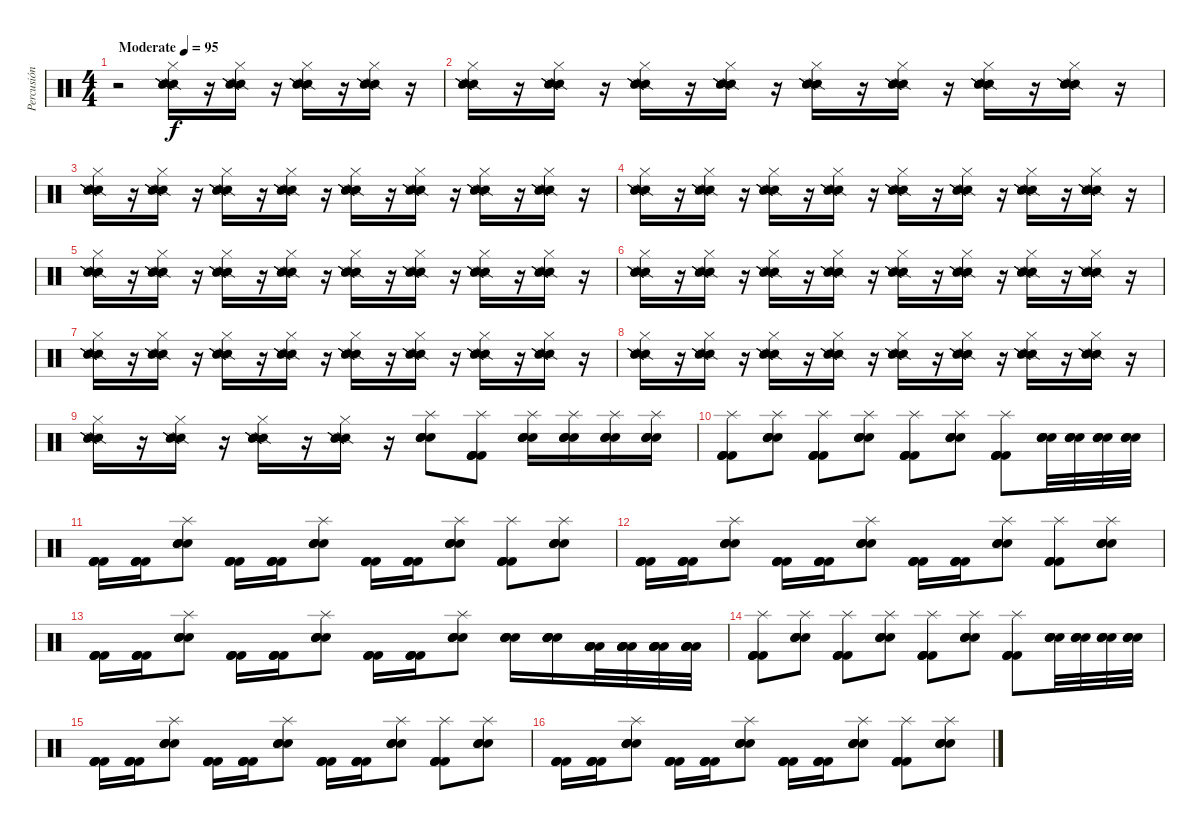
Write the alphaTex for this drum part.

\track ("Percusión" "Percusión") {instrument percussion}
\staff {score}
\articulation defaults
\ts (4 4)
\tempo (95 "Moderate")
\clef neutral
\ks c
r.2{dy f} ("Snare (side stick) 2" "Snare (side stick) 2" "Hi-Hat (closed)" "Snare (side stick) 2" "Snare (side stick) 2").16 r.16 ("Snare (side stick) 2" "Snare (side stick) 2" "Hi-Hat (closed)" "Snare (side stick) 2" "Snare (side stick) 2").16 r.16 ("Snare (side stick) 2" "Snare (side stick) 2" "Hi-Hat (closed)" "Snare (side stick) 2" "Snare (side stick) 2").16 r.16 ("Snare (side stick) 2" "Snare (side stick) 2" "Hi-Hat (closed)" "Snare (side stick) 2" "Snare (side stick) 2").16 r.16 |
("Snare (side stick) 2" "Snare (side stick) 2" "Hi-Hat (closed)" "Snare (side stick) 2" "Snare (side stick) 2").16 r.16 ("Snare (side stick) 2" "Snare (side stick) 2" "Hi-Hat (closed)" "Snare (side stick) 2" "Snare (side stick) 2").16 r.16 ("Snare (side stick) 2" "Snare (side stick) 2" "Hi-Hat (closed)" "Snare (side stick) 2" "Snare (side stick) 2").16 r.16 ("Snare (side stick) 2" "Snare (side stick) 2" "Hi-Hat (closed)" "Snare (side stick) 2" "Snare (side stick) 2").16 r.16 ("Snare (side stick) 2" "Snare (side stick) 2" "Hi-Hat (closed)" "Snare (side stick) 2" "Snare (side stick) 2").16 r.16 ("Snare (side stick) 2" "Snare (side stick) 2" "Hi-Hat (closed)" "Snare (side stick) 2" "Snare (side stick) 2").16 r.16 ("Snare (side stick) 2" "Snare (side stick) 2" "Hi-Hat (closed)" "Snare (side stick) 2" "Snare (side stick) 2").16 r.16 ("Snare (side stick) 2" "Snare (side stick) 2" "Hi-Hat (closed)" "Snare (side stick) 2" "Snare (side stick) 2").16 r.16 |
("Snare (side stick) 2" "Snare (side stick) 2" "Hi-Hat (closed)" "Snare (side stick) 2" "Snare (side stick) 2").16 r.16 ("Snare (side stick) 2" "Snare (side stick) 2" "Hi-Hat (closed)" "Snare (side stick) 2" "Snare (side stick) 2").16 r.16 ("Snare (side stick) 2" "Snare (side stick) 2" "Hi-Hat (closed)" "Snare (side stick) 2" "Snare (side stick) 2").16 r.16 ("Snare (side stick) 2" "Snare (side stick) 2" "Hi-Hat (closed)" "Snare (side stick) 2" "Snare (side stick) 2").16 r.16 ("Snare (side stick) 2" "Snare (side stick) 2" "Hi-Hat (closed)" "Snare (side stick) 2" "Snare (side stick) 2").16 r.16 ("Snare (side stick) 2" "Snare (side stick) 2" "Hi-Hat (closed)" "Snare (side stick) 2" "Snare (side stick) 2").16 r.16 ("Snare (side stick) 2" "Snare (side stick) 2" "Hi-Hat (closed)" "Snare (side stick) 2" "Snare (side stick) 2").16 r.16 ("Snare (side stick) 2" "Snare (side stick) 2" "Hi-Hat (closed)" "Snare (side stick) 2" "Snare (side stick) 2").16 r.16 |
("Snare (side stick) 2" "Snare (side stick) 2" "Hi-Hat (closed)" "Snare (side stick) 2" "Snare (side stick) 2").16 r.16 ("Snare (side stick) 2" "Snare (side stick) 2" "Hi-Hat (closed)" "Snare (side stick) 2" "Snare (side stick) 2").16 r.16 ("Snare (side stick) 2" "Snare (side stick) 2" "Hi-Hat (closed)" "Snare (side stick) 2" "Snare (side stick) 2").16 r.16 ("Snare (side stick) 2" "Snare (side stick) 2" "Hi-Hat (closed)" "Snare (side stick) 2" "Snare (side stick) 2").16 r.16 ("Snare (side stick) 2" "Snare (side stick) 2" "Hi-Hat (closed)" "Snare (side stick) 2" "Snare (side stick) 2").16 r.16 ("Snare (side stick) 2" "Snare (side stick) 2" "Hi-Hat (closed)" "Snare (side stick) 2" "Snare (side stick) 2").16 r.16 ("Snare (side stick) 2" "Snare (side stick) 2" "Hi-Hat (closed)" "Snare (side stick) 2" "Snare (side stick) 2").16 r.16 ("Snare (side stick) 2" "Snare (side stick) 2" "Hi-Hat (closed)" "Snare (side stick) 2" "Snare (side stick) 2").16 r.16 |
("Snare (side stick) 2" "Snare (side stick) 2" "Hi-Hat (closed)" "Snare (side stick) 2" "Snare (side stick) 2").16 r.16 ("Snare (side stick) 2" "Snare (side stick) 2" "Hi-Hat (closed)" "Snare (side stick) 2" "Snare (side stick) 2").16 r.16 ("Snare (side stick) 2" "Snare (side stick) 2" "Hi-Hat (closed)" "Snare (side stick) 2" "Snare (side stick) 2").16 r.16 ("Snare (side stick) 2" "Snare (side stick) 2" "Hi-Hat (closed)" "Snare (side stick) 2" "Snare (side stick) 2").16 r.16 ("Snare (side stick) 2" "Snare (side stick) 2" "Hi-Hat (closed)" "Snare (side stick) 2" "Snare (side stick) 2").16 r.16 ("Snare (side stick) 2" "Snare (side stick) 2" "Hi-Hat (closed)" "Snare (side stick) 2" "Snare (side stick) 2").16 r.16 ("Snare (side stick) 2" "Snare (side stick) 2" "Hi-Hat (closed)" "Snare (side stick) 2" "Snare (side stick) 2").16 r.16 ("Snare (side stick) 2" "Snare (side stick) 2" "Hi-Hat (closed)" "Snare (side stick) 2" "Snare (side stick) 2").16 r.16 |
("Snare (side stick) 2" "Snare (side stick) 2" "Hi-Hat (closed)" "Snare (side stick) 2" "Snare (side stick) 2").16 r.16 ("Snare (side stick) 2" "Snare (side stick) 2" "Hi-Hat (closed)" "Snare (side stick) 2" "Snare (side stick) 2").16 r.16 ("Snare (side stick) 2" "Snare (side stick) 2" "Hi-Hat (closed)" "Snare (side stick) 2" "Snare (side stick) 2").16 r.16 ("Snare (side stick) 2" "Snare (side stick) 2" "Hi-Hat (closed)" "Snare (side stick) 2" "Snare (side stick) 2").16 r.16 ("Snare (side stick) 2" "Snare (side stick) 2" "Hi-Hat (closed)" "Snare (side stick) 2" "Snare (side stick) 2").16 r.16 ("Snare (side stick) 2" "Snare (side stick) 2" "Hi-Hat (closed)" "Snare (side stick) 2" "Snare (side stick) 2").16 r.16 ("Snare (side stick) 2" "Snare (side stick) 2" "Hi-Hat (closed)" "Snare (side stick) 2" "Snare (side stick) 2").16 r.16 ("Snare (side stick) 2" "Snare (side stick) 2" "Hi-Hat (closed)" "Snare (side stick) 2" "Snare (side stick) 2").16 r.16 |
("Snare (side stick) 2" "Snare (side stick) 2" "Hi-Hat (closed)" "Snare (side stick) 2" "Snare (side stick) 2").16 r.16 ("Snare (side stick) 2" "Snare (side stick) 2" "Hi-Hat (closed)" "Snare (side stick) 2" "Snare (side stick) 2").16 r.16 ("Snare (side stick) 2" "Snare (side stick) 2" "Hi-Hat (closed)" "Snare (side stick) 2" "Snare (side stick) 2").16 r.16 ("Snare (side stick) 2" "Snare (side stick) 2" "Hi-Hat (closed)" "Snare (side stick) 2" "Snare (side stick) 2").16 r.16 ("Snare (side stick) 2" "Snare (side stick) 2" "Hi-Hat (closed)" "Snare (side stick) 2" "Snare (side stick) 2").16 r.16 ("Snare (side stick) 2" "Snare (side stick) 2" "Hi-Hat (closed)" "Snare (side stick) 2" "Snare (side stick) 2").16 r.16 ("Snare (side stick) 2" "Snare (side stick) 2" "Hi-Hat (closed)" "Snare (side stick) 2" "Snare (side stick) 2").16 r.16 ("Snare (side stick) 2" "Snare (side stick) 2" "Hi-Hat (closed)" "Snare (side stick) 2" "Snare (side stick) 2").16 r.16 |
("Snare (side stick) 2" "Snare (side stick) 2" "Hi-Hat (closed)" "Snare (side stick) 2" "Snare (side stick) 2").16 r.16 ("Snare (side stick) 2" "Snare (side stick) 2" "Hi-Hat (closed)" "Snare (side stick) 2" "Snare (side stick) 2").16 r.16 ("Snare (side stick) 2" "Snare (side stick) 2" "Hi-Hat (closed)" "Snare (side stick) 2" "Snare (side stick) 2").16 r.16 ("Snare (side stick) 2" "Snare (side stick) 2" "Hi-Hat (closed)" "Snare (side stick) 2" "Snare (side stick) 2").16 r.16 ("Snare (side stick) 2" "Snare (side stick) 2" "Hi-Hat (closed)" "Snare (side stick) 2" "Snare (side stick) 2").16 r.16 ("Snare (side stick) 2" "Snare (side stick) 2" "Hi-Hat (closed)" "Snare (side stick) 2" "Snare (side stick) 2").16 r.16 ("Snare (side stick) 2" "Snare (side stick) 2" "Hi-Hat (closed)" "Snare (side stick) 2" "Snare (side stick) 2").16 r.16 ("Snare (side stick) 2" "Snare (side stick) 2" "Hi-Hat (closed)" "Snare (side stick) 2" "Snare (side stick) 2").16 r.16 |
("Snare (side stick) 2" "Snare (side stick) 2" "Hi-Hat (closed)" "Snare (side stick) 2" "Snare (side stick) 2").16 r.16 ("Snare (side stick) 2" "Snare (side stick) 2" "Hi-Hat (closed)" "Snare (side stick) 2" "Snare (side stick) 2").16 r.16 ("Snare (side stick) 2" "Snare (side stick) 2" "Hi-Hat (closed)" "Snare (side stick) 2" "Snare (side stick) 2").16 r.16 ("Snare (side stick) 2" "Snare (side stick) 2" "Hi-Hat (closed)" "Snare (side stick) 2" "Snare (side stick) 2").16 r.16 ("Electric Snare (hit)" "Splash (hit)" "Electric Snare (hit)" "Electric Snare (hit)" "Electric Snare (hit)").8 ("Kick (hit) 2" "Splash (hit)" "Kick (hit) 2" "Kick (hit) 2" "Kick (hit) 2").8 ("Electric Snare (hit)" "Splash (hit)" "Electric Snare (hit)" "Electric Snare (hit)" "Electric Snare (hit)").16 ("Electric Snare (hit)" "Splash (hit)" "Electric Snare (hit)" "Electric Snare (hit)" "Electric Snare (hit)").16 ("Electric Snare (hit)" "Splash (hit)" "Electric Snare (hit)" "Electric Snare (hit)" "Electric Snare (hit)").16 ("Electric Snare (hit)" "Splash (hit)" "Electric Snare (hit)" "Electric Snare (hit)" "Electric Snare (hit)").16 |
("Kick (hit) 2" "Kick (hit) 2" "Splash (hit)" "Kick (hit) 2" "Kick (hit) 2").8 ("Electric Snare (hit)" "Electric Snare (hit)" "Splash (hit)" "Electric Snare (hit)" "Electric Snare (hit)").8 ("Kick (hit) 2" "Kick (hit) 2" "Splash (hit)" "Kick (hit) 2" "Kick (hit) 2").8 ("Electric Snare (hit)" "Electric Snare (hit)" "Splash (hit)" "Electric Snare (hit)" "Electric Snare (hit)").8 ("Kick (hit) 2" "Kick (hit) 2" "Splash (hit)" "Kick (hit) 2" "Kick (hit) 2").8 ("Electric Snare (hit)" "Electric Snare (hit)" "Splash (hit)" "Electric Snare (hit)" "Electric Snare (hit)").8 ("Kick (hit) 2" "Kick (hit) 2" "Splash (hit)" "Kick (hit) 2" "Kick (hit) 2").8 ("Electric Snare (hit)" "Electric Snare (hit)" "Electric Snare (hit)" "Electric Snare (hit)").32 ("Electric Snare (hit)" "Electric Snare (hit)" "Electric Snare (hit)" "Electric Snare (hit)").32 ("Electric Snare (hit)" "Electric Snare (hit)" "Electric Snare (hit)" "Electric Snare (hit)").32 ("Electric Snare (hit)" "Electric Snare (hit)" "Electric Snare (hit)" "Electric Snare (hit)").32 |
("Kick (hit) 2" "Kick (hit) 2" "Kick (hit) 2" "Kick (hit) 2").16 ("Kick (hit) 2" "Kick (hit) 2" "Kick (hit) 2" "Kick (hit) 2").16 ("Electric Snare (hit)" "Electric Snare (hit)" "Splash (hit)" "Electric Snare (hit)" "Electric Snare (hit)").8 ("Kick (hit) 2" "Kick (hit) 2" "Kick (hit) 2" "Kick (hit) 2").16 ("Kick (hit) 2" "Kick (hit) 2" "Kick (hit) 2" "Kick (hit) 2").16 ("Electric Snare (hit)" "Electric Snare (hit)" "Splash (hit)" "Electric Snare (hit)" "Electric Snare (hit)").8 ("Kick (hit) 2" "Kick (hit) 2" "Kick (hit) 2" "Kick (hit) 2").16 ("Kick (hit) 2" "Kick (hit) 2" "Kick (hit) 2" "Kick (hit) 2").16 ("Electric Snare (hit)" "Electric Snare (hit)" "Splash (hit)" "Electric Snare (hit)" "Electric Snare (hit)").8 ("Kick (hit) 2" "Kick (hit) 2" "Splash (hit)" "Kick (hit) 2" "Kick (hit) 2").8 ("Electric Snare (hit)" "Electric Snare (hit)" "Splash (hit)" "Electric Snare (hit)" "Electric Snare (hit)").8 |
("Kick (hit) 2" "Kick (hit) 2" "Kick (hit) 2" "Kick (hit) 2").16 ("Kick (hit) 2" "Kick (hit) 2" "Kick (hit) 2" "Kick (hit) 2").16 ("Electric Snare (hit)" "Electric Snare (hit)" "Splash (hit)" "Electric Snare (hit)" "Electric Snare (hit)").8 ("Kick (hit) 2" "Kick (hit) 2" "Kick (hit) 2" "Kick (hit) 2").16 ("Kick (hit) 2" "Kick (hit) 2" "Kick (hit) 2" "Kick (hit) 2").16 ("Electric Snare (hit)" "Electric Snare (hit)" "Splash (hit)" "Electric Snare (hit)" "Electric Snare (hit)").8 ("Kick (hit) 2" "Kick (hit) 2" "Kick (hit) 2" "Kick (hit) 2").16 ("Kick (hit) 2" "Kick (hit) 2" "Kick (hit) 2" "Kick (hit) 2").16 ("Electric Snare (hit)" "Electric Snare (hit)" "Splash (hit)" "Electric Snare (hit)" "Electric Snare (hit)").8 ("Kick (hit) 2" "Kick (hit) 2" "Splash (hit)" "Kick (hit) 2" "Kick (hit) 2").8 ("Electric Snare (hit)" "Electric Snare (hit)" "Splash (hit)" "Electric Snare (hit)" "Electric Snare (hit)").8 |
("Kick (hit) 2" "Kick (hit) 2" "Kick (hit) 2" "Kick (hit) 2").16 ("Kick (hit) 2" "Kick (hit) 2" "Kick (hit) 2" "Kick (hit) 2").16 ("Electric Snare (hit)" "Electric Snare (hit)" "Splash (hit)" "Electric Snare (hit)" "Electric Snare (hit)").8 ("Kick (hit) 2" "Kick (hit) 2" "Kick (hit) 2" "Kick (hit) 2").16 ("Kick (hit) 2" "Kick (hit) 2" "Kick (hit) 2" "Kick (hit) 2").16 ("Electric Snare (hit)" "Electric Snare (hit)" "Splash (hit)" "Electric Snare (hit)" "Electric Snare (hit)").8 ("Kick (hit) 2" "Kick (hit) 2" "Kick (hit) 2" "Kick (hit) 2").16 ("Kick (hit) 2" "Kick (hit) 2" "Kick (hit) 2" "Kick (hit) 2").16 ("Electric Snare (hit)" "Electric Snare (hit)" "Splash (hit)" "Electric Snare (hit)" "Electric Snare (hit)").8 ("Electric Snare (hit)" "Electric Snare (hit)" "Electric Snare (hit)" "Electric Snare (hit)" "Electric Snare (hit)").16 ("Electric Snare (hit)" "Electric Snare (hit)" "Electric Snare (hit)" "Electric Snare (hit)" "Electric Snare (hit)").16 ("Low Tom (hit)" "Low Tom (hit)" "Low Tom (hit)" "Low Tom (hit)" "Low Tom (hit)").32 ("Low Tom (hit)" "Low Tom (hit)" "Low Tom (hit)" "Low Tom (hit)" "Low Tom (hit)").32 ("Low Tom (hit)" "Low Tom (hit)" "Low Tom (hit)" "Low Tom (hit)" "Low Tom (hit)").32 ("Low Tom (hit)" "Low Tom (hit)" "Low Tom (hit)" "Low Tom (hit)" "Low Tom (hit)").32 |
("Kick (hit) 2" "Kick (hit) 2" "Splash (hit)" "Kick (hit) 2" "Kick (hit) 2").8 ("Electric Snare (hit)" "Electric Snare (hit)" "Splash (hit)" "Electric Snare (hit)" "Electric Snare (hit)").8 ("Kick (hit) 2" "Kick (hit) 2" "Splash (hit)" "Kick (hit) 2" "Kick (hit) 2").8 ("Electric Snare (hit)" "Electric Snare (hit)" "Splash (hit)" "Electric Snare (hit)" "Electric Snare (hit)").8 ("Kick (hit) 2" "Kick (hit) 2" "Splash (hit)" "Kick (hit) 2" "Kick (hit) 2").8 ("Electric Snare (hit)" "Electric Snare (hit)" "Splash (hit)" "Electric Snare (hit)" "Electric Snare (hit)").8 ("Kick (hit) 2" "Kick (hit) 2" "Splash (hit)" "Kick (hit) 2" "Kick (hit) 2").8 ("Electric Snare (hit)" "Electric Snare (hit)" "Electric Snare (hit)" "Electric Snare (hit)").32 ("Electric Snare (hit)" "Electric Snare (hit)" "Electric Snare (hit)" "Electric Snare (hit)").32 ("Electric Snare (hit)" "Electric Snare (hit)" "Electric Snare (hit)" "Electric Snare (hit)").32 ("Electric Snare (hit)" "Electric Snare (hit)" "Electric Snare (hit)" "Electric Snare (hit)").32 |
("Kick (hit) 2" "Kick (hit) 2" "Kick (hit) 2" "Kick (hit) 2").16 ("Kick (hit) 2" "Kick (hit) 2" "Kick (hit) 2" "Kick (hit) 2").16 ("Electric Snare (hit)" "Electric Snare (hit)" "Splash (hit)" "Electric Snare (hit)" "Electric Snare (hit)").8 ("Kick (hit) 2" "Kick (hit) 2" "Kick (hit) 2" "Kick (hit) 2").16 ("Kick (hit) 2" "Kick (hit) 2" "Kick (hit) 2" "Kick (hit) 2").16 ("Electric Snare (hit)" "Electric Snare (hit)" "Splash (hit)" "Electric Snare (hit)" "Electric Snare (hit)").8 ("Kick (hit) 2" "Kick (hit) 2" "Kick (hit) 2" "Kick (hit) 2").16 ("Kick (hit) 2" "Kick (hit) 2" "Kick (hit) 2" "Kick (hit) 2").16 ("Electric Snare (hit)" "Electric Snare (hit)" "Splash (hit)" "Electric Snare (hit)" "Electric Snare (hit)").8 ("Kick (hit) 2" "Kick (hit) 2" "Splash (hit)" "Kick (hit) 2" "Kick (hit) 2").8 ("Electric Snare (hit)" "Electric Snare (hit)" "Splash (hit)" "Electric Snare (hit)" "Electric Snare (hit)").8 |
("Kick (hit) 2" "Kick (hit) 2" "Kick (hit) 2" "Kick (hit) 2").16 ("Kick (hit) 2" "Kick (hit) 2" "Kick (hit) 2" "Kick (hit) 2").16 ("Electric Snare (hit)" "Electric Snare (hit)" "Splash (hit)" "Electric Snare (hit)" "Electric Snare (hit)").8 ("Kick (hit) 2" "Kick (hit) 2" "Kick (hit) 2" "Kick (hit) 2").16 ("Kick (hit) 2" "Kick (hit) 2" "Kick (hit) 2" "Kick (hit) 2").16 ("Electric Snare (hit)" "Electric Snare (hit)" "Splash (hit)" "Electric Snare (hit)" "Electric Snare (hit)").8 ("Kick (hit) 2" "Kick (hit) 2" "Kick (hit) 2" "Kick (hit) 2").16 ("Kick (hit) 2" "Kick (hit) 2" "Kick (hit) 2" "Kick (hit) 2").16 ("Electric Snare (hit)" "Electric Snare (hit)" "Splash (hit)" "Electric Snare (hit)" "Electric Snare (hit)").8 ("Kick (hit) 2" "Kick (hit) 2" "Splash (hit)" "Kick (hit) 2" "Kick (hit) 2").8 ("Electric Snare (hit)" "Electric Snare (hit)" "Splash (hit)" "Electric Snare (hit)" "Electric Snare (hit)").8
